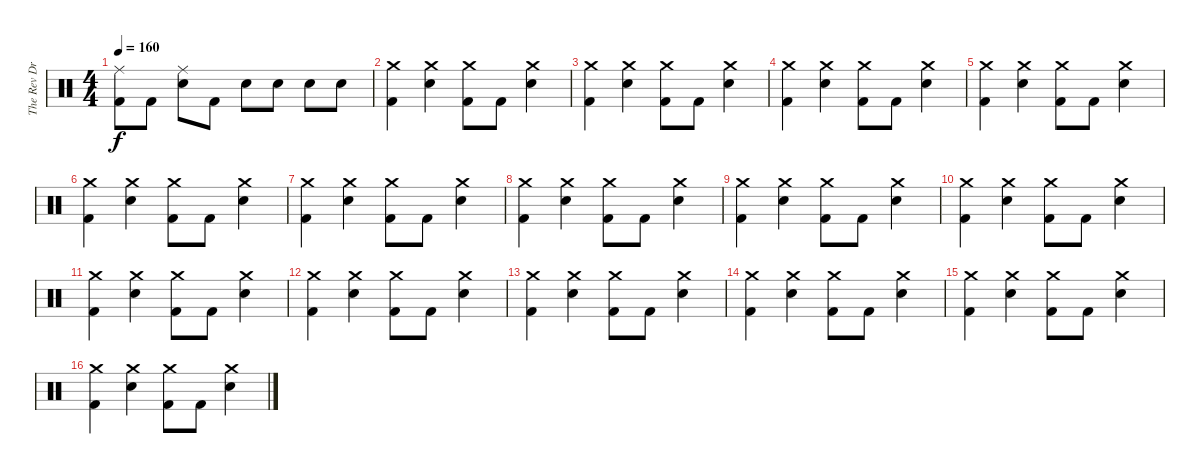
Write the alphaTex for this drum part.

\track ("The Rev Drum" "The Rev Dr") {instrument percussion}
\staff {score}
\articulation defaults
\ts (4 4)
\tempo 160
\clef neutral
\ks c
("Ride (middle)" "Kick (hit) 2").8{dy f} "Kick (hit) 2".8 ("Ride (middle)" "Electric Snare (hit)").8 "Kick (hit) 2".8 "Electric Snare (hit)".8 "Electric Snare (hit)".8 "Electric Snare (hit)".8 "Electric Snare (hit)".8 |
("Crash medium (hit)" "Kick (hit) 2").4 ("Crash medium (hit)" "Electric Snare (hit)").4 ("Crash medium (hit)" "Kick (hit) 2").8 "Kick (hit) 2".8 ("Crash medium (hit)" "Electric Snare (hit)").4 |
("Crash medium (hit)" "Kick (hit) 2").4 ("Crash medium (hit)" "Electric Snare (hit)").4 ("Crash medium (hit)" "Kick (hit) 2").8 "Kick (hit) 2".8 ("Crash medium (hit)" "Electric Snare (hit)").4 |
("Crash medium (hit)" "Kick (hit) 2").4 ("Crash medium (hit)" "Electric Snare (hit)").4 ("Crash medium (hit)" "Kick (hit) 2").8 "Kick (hit) 2".8 ("Crash medium (hit)" "Electric Snare (hit)").4 |
("Crash medium (hit)" "Kick (hit) 2").4 ("Crash medium (hit)" "Electric Snare (hit)").4 ("Crash medium (hit)" "Kick (hit) 2").8 "Kick (hit) 2".8 ("Crash medium (hit)" "Electric Snare (hit)").4 |
("Crash medium (hit)" "Kick (hit) 2").4 ("Crash medium (hit)" "Electric Snare (hit)").4 ("Crash medium (hit)" "Kick (hit) 2").8 "Kick (hit) 2".8 ("Crash medium (hit)" "Electric Snare (hit)").4 |
("Crash medium (hit)" "Kick (hit) 2").4 ("Crash medium (hit)" "Electric Snare (hit)").4 ("Crash medium (hit)" "Kick (hit) 2").8 "Kick (hit) 2".8 ("Crash medium (hit)" "Electric Snare (hit)").4 |
("Crash medium (hit)" "Kick (hit) 2").4 ("Crash medium (hit)" "Electric Snare (hit)").4 ("Crash medium (hit)" "Kick (hit) 2").8 "Kick (hit) 2".8 ("Crash medium (hit)" "Electric Snare (hit)").4 |
("Crash medium (hit)" "Kick (hit) 2").4 ("Crash medium (hit)" "Electric Snare (hit)").4 ("Crash medium (hit)" "Kick (hit) 2").8 "Kick (hit) 2".8 ("Crash medium (hit)" "Electric Snare (hit)").4 |
("Crash medium (hit)" "Kick (hit) 2").4 ("Crash medium (hit)" "Electric Snare (hit)").4 ("Crash medium (hit)" "Kick (hit) 2").8 "Kick (hit) 2".8 ("Crash medium (hit)" "Electric Snare (hit)").4 |
("Crash medium (hit)" "Kick (hit) 2").4 ("Crash medium (hit)" "Electric Snare (hit)").4 ("Crash medium (hit)" "Kick (hit) 2").8 "Kick (hit) 2".8 ("Crash medium (hit)" "Electric Snare (hit)").4 |
("Crash medium (hit)" "Kick (hit) 2").4 ("Crash medium (hit)" "Electric Snare (hit)").4 ("Crash medium (hit)" "Kick (hit) 2").8 "Kick (hit) 2".8 ("Crash medium (hit)" "Electric Snare (hit)").4 |
("Crash medium (hit)" "Kick (hit) 2").4 ("Crash medium (hit)" "Electric Snare (hit)").4 ("Crash medium (hit)" "Kick (hit) 2").8 "Kick (hit) 2".8 ("Crash medium (hit)" "Electric Snare (hit)").4 |
("Crash medium (hit)" "Kick (hit) 2").4 ("Crash medium (hit)" "Electric Snare (hit)").4 ("Crash medium (hit)" "Kick (hit) 2").8 "Kick (hit) 2".8 ("Crash medium (hit)" "Electric Snare (hit)").4 |
("Crash medium (hit)" "Kick (hit) 2").4 ("Crash medium (hit)" "Electric Snare (hit)").4 ("Crash medium (hit)" "Kick (hit) 2").8 "Kick (hit) 2".8 ("Crash medium (hit)" "Electric Snare (hit)").4 |
("Crash medium (hit)" "Kick (hit) 2").4 ("Crash medium (hit)" "Electric Snare (hit)").4 ("Crash medium (hit)" "Kick (hit) 2").8 "Kick (hit) 2".8 ("Crash medium (hit)" "Electric Snare (hit)").4
